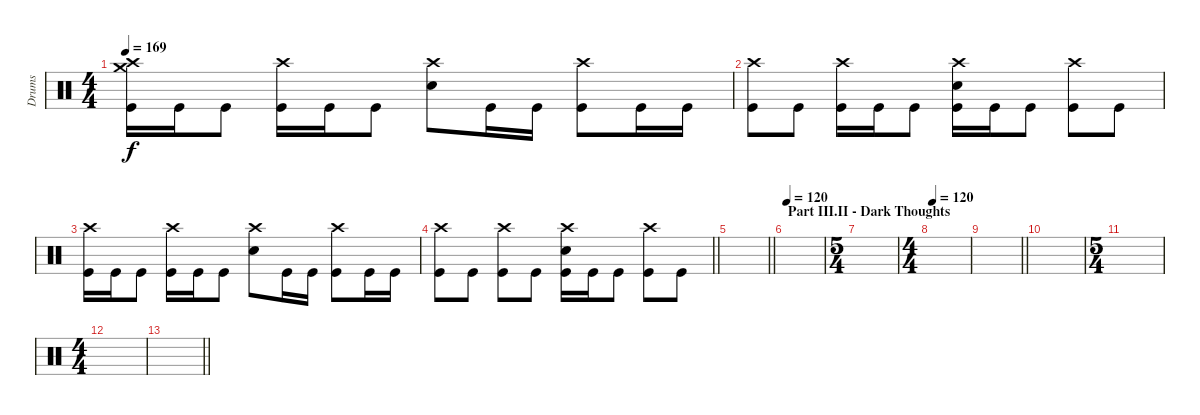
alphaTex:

\track ("Drums" "Drums") {instrument percussion}
\staff
\articulation defaults
\ts (4 4)
\tempo 169
\clef neutral
\ks c
("Crash high (hit)" "Crash medium (hit)" "Kick (hit)").16{dy f} "Kick (hit)".16 "Kick (hit)".8 ("Crash high (hit)" "Kick (hit)").16 "Kick (hit)".16 "Kick (hit)".8 ("Crash high (hit)" "Electric Snare (hit)").8 "Kick (hit)".16 "Kick (hit)".16 ("Crash high (hit)" "Kick (hit)").8 "Kick (hit)".16 "Kick (hit)".16 |
("Crash high (hit)" "Kick (hit)").8 "Kick (hit)".8 ("Crash high (hit)" "Kick (hit)").16 "Kick (hit)".16 "Kick (hit)".8 ("Crash high (hit)" "Electric Snare (hit)" "Kick (hit)").16 "Kick (hit)".16 "Kick (hit)".8 ("Crash high (hit)" "Kick (hit)").8 "Kick (hit)".8 |
("Crash high (hit)" "Kick (hit)").16 "Kick (hit)".16 "Kick (hit)".8 ("Crash high (hit)" "Kick (hit)").16 "Kick (hit)".16 "Kick (hit)".8 ("Crash high (hit)" "Electric Snare (hit)").8 "Kick (hit)".16 "Kick (hit)".16 ("Crash high (hit)" "Kick (hit)").8 "Kick (hit)".16 "Kick (hit)".16 |
\barLineRight lightlight
("Crash high (hit)" "Kick (hit)").8 "Kick (hit)".8 ("Crash high (hit)" "Kick (hit)").8 "Kick (hit)".8 ("Crash high (hit)" "Electric Snare (hit)" "Kick (hit)").16 "Kick (hit)".16 "Kick (hit)".8 ("Crash high (hit)" "Kick (hit)").8 "Kick (hit)".8 |
\barLineRight lightlight
|
\section ("" "Part III.II - Dark Thoughts")
\tempo 120
|
\ts (5 4)
|
\ts (4 4)
\tempo 120
|
\barLineRight lightlight
|
|
\ts (5 4)
|
\ts (4 4)
|
\barLineRight lightlight
